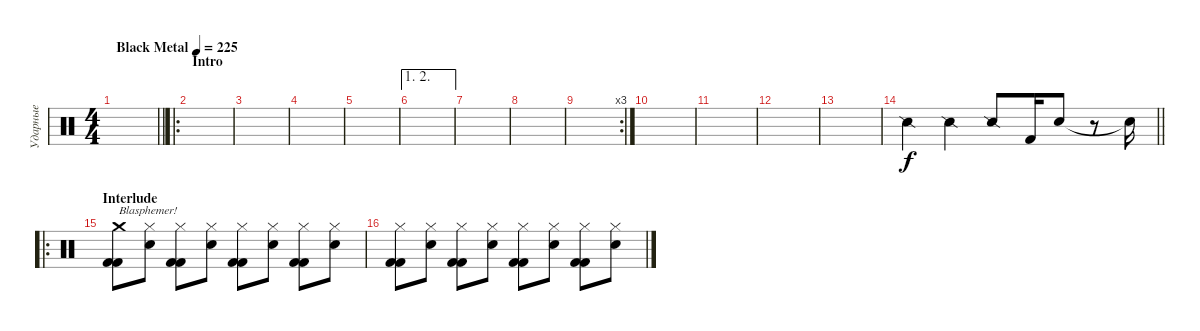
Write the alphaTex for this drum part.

\track ("Ударные" "Ударные") {instrument percussion}
\staff {score}
\articulation defaults
\ts (4 4)
\tempo (225 "Black Metal")
\clef neutral
\barLineRight lightlight
\ks c
|
\ro
\section ("" "Intro")
|
|
|
|
\ae (1 2)
|
|
|
\rc 3
|
|
|
|
|
\barLineRight lightlight "Snare (side stick) 2".4 "Snare (side stick) 2".4 "Snare (side stick) 2".8 "Kick (hit) 2".16 "Snare (hit) 2".8
r.8 "Snare (hit)"{t}.16 |
\ro
\section ("" "Interlude")
("Crash medium (hit)" "Kick (hit) 2" "Kick (hit) 2").8{txt "Blasphemer!"} ("Hi-Hat (closed)" "Snare (hit) 2").8 ("Hi-Hat (closed)" "Kick (hit) 2" "Kick (hit) 2").8 ("Hi-Hat (closed)" "Snare (hit) 2").8 ("Hi-Hat (closed)" "Kick (hit) 2" "Kick (hit) 2").8 ("Hi-Hat (closed)" "Snare (hit) 2").8 ("Hi-Hat (closed)" "Kick (hit) 2" "Kick (hit) 2").8 ("Hi-Hat (closed)" "Snare (hit) 2").8 |
("Hi-Hat (closed)" "Kick (hit) 2" "Kick (hit) 2").8 ("Hi-Hat (closed)" "Snare (hit) 2").8 ("Hi-Hat (closed)" "Kick (hit) 2" "Kick (hit) 2").8 ("Hi-Hat (closed)" "Snare (hit) 2").8 ("Hi-Hat (closed)" "Kick (hit) 2" "Kick (hit) 2").8 ("Hi-Hat (closed)" "Snare (hit) 2").8 ("Hi-Hat (closed)" "Kick (hit) 2" "Kick (hit) 2").8 ("Hi-Hat (closed)" "Snare (hit) 2").8
